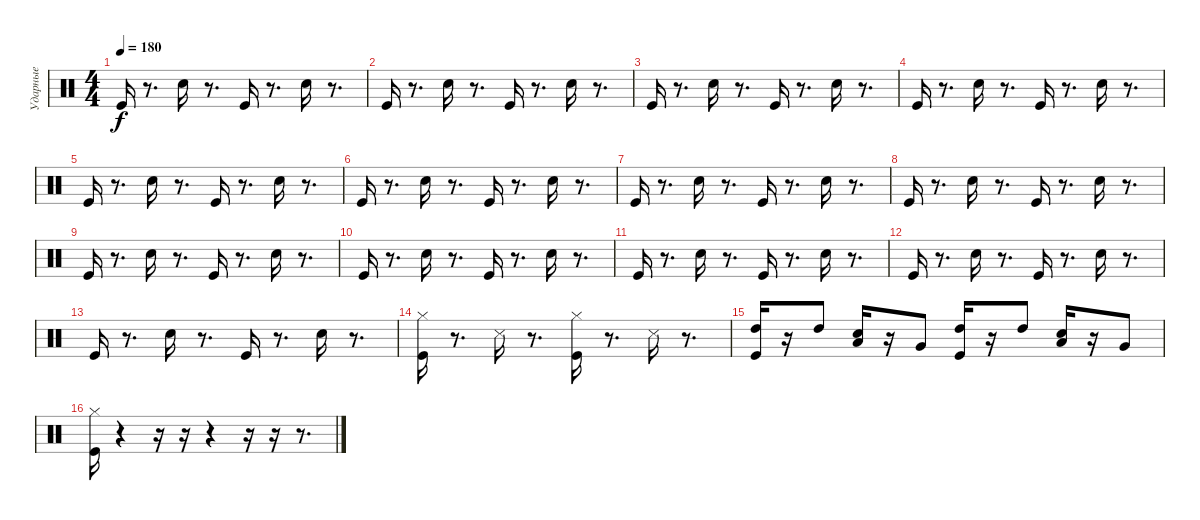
\track ("Ударные" "Ударные") {instrument percussion}
\staff {score}
\articulation defaults
\ts (4 4)
\tempo 180
\clef neutral
\ks c "Kick (hit)".16{dy f}
r.8{d} "Snare (hit) 2".16 r.8{d} "Kick (hit)".16 r.8{d} "Snare (hit) 2".16 r.8{d} |
"Kick (hit)".16 r.8{d} "Snare (hit) 2".16 r.8{d} "Kick (hit)".16 r.8{d} "Snare (hit) 2".16 r.8{d} |
"Kick (hit)".16 r.8{d} "Snare (hit) 2".16 r.8{d} "Kick (hit)".16 r.8{d} "Snare (hit) 2".16 r.8{d} |
"Kick (hit)".16 r.8{d} "Snare (hit) 2".16 r.8{d} "Kick (hit)".16 r.8{d} "Snare (hit) 2".16 r.8{d} |
"Kick (hit)".16 r.8{d} "Snare (hit) 2".16 r.8{d} "Kick (hit)".16 r.8{d} "Snare (hit) 2".16 r.8{d} |
"Kick (hit)".16 r.8{d} "Snare (hit) 2".16 r.8{d} "Kick (hit)".16 r.8{d} "Snare (hit) 2".16 r.8{d} |
"Kick (hit)".16 r.8{d} "Snare (hit) 2".16 r.8{d} "Kick (hit)".16 r.8{d} "Snare (hit) 2".16 r.8{d} |
"Kick (hit)".16 r.8{d} "Snare (hit) 2".16 r.8{d} "Kick (hit)".16 r.8{d} "Snare (hit) 2".16 r.8{d} |
"Kick (hit)".16 r.8{d} "Snare (hit) 2".16 r.8{d} "Kick (hit)".16 r.8{d} "Snare (hit) 2".16 r.8{d} |
"Kick (hit)".16 r.8{d} "Snare (hit) 2".16 r.8{d} "Kick (hit)".16 r.8{d} "Snare (hit) 2".16 r.8{d} |
"Kick (hit)".16 r.8{d} "Snare (hit) 2".16 r.8{d} "Kick (hit)".16 r.8{d} "Snare (hit) 2".16 r.8{d} |
"Kick (hit)".16 r.8{d} "Snare (hit) 2".16 r.8{d} "Kick (hit)".16 r.8{d} "Snare (hit) 2".16 r.8{d} |
"Kick (hit)".16 r.8{d} "Snare (hit) 2".16 r.8{d} "Kick (hit)".16 r.8{d} "Snare (hit) 2".16 r.8{d} |
("Kick (hit)" "Hi-Hat (closed)").16 r.8{d} "Snare (side stick) 3".16 r.8{d} ("Kick (hit)" "Hi-Hat (closed)").16 r.8{d} "Snare (side stick) 3".16 r.8{d} |
("Kick (hit)" "High Tom (hit)").16 r.16 "High Tom (hit)".8 ("Low Tom (hit)" "Snare (hit) 2").16 r.16 "Very Low Tom (hit)".8 ("Kick (hit)" "High Tom (hit)").16 r.16 "High Tom (hit)".8 ("Low Tom (hit)" "Snare (hit) 2").16 r.16 "Very Low Tom (hit)".8 |
("Hi-Hat (closed)" "Kick (hit)").16 r.4 r.16 r.16 r.4 r.16 r.16 r.8{d}
